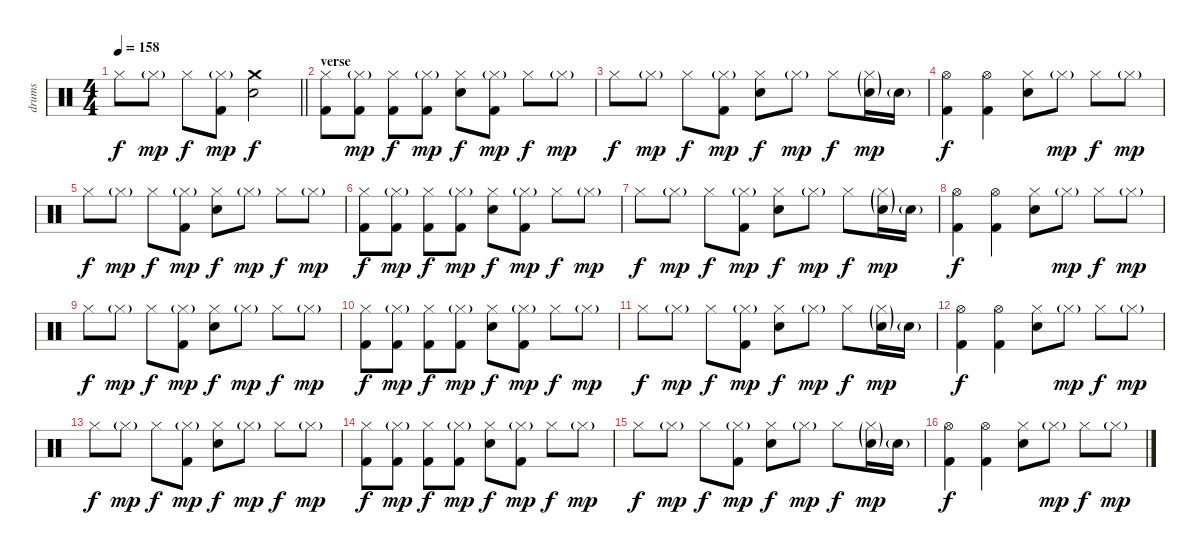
\track ("drums" "drums") {instrument percussion}
\staff {score}
\articulation defaults
\ts (4 4)
\tempo 158
\clef neutral
\barLineRight lightlight
\ks c "Hi-Hat (closed)".8{dy f} "Hi-Hat (closed)"{g}.8{dy mp} "Hi-Hat (closed)".8{dy f}
("Hi-Hat (closed)"{g} "Kick (hit) 2").8{dy mp} ("Crash medium (hit)" "Electric Snare (hit)").2{dy f} |
\section ("" "verse")
("Hi-Hat (closed)" "Kick (hit) 2").8 ("Hi-Hat (closed)"{g} "Kick (hit) 2").8{dy mp} ("Hi-Hat (closed)" "Kick (hit) 2").8{dy f} ("Hi-Hat (closed)"{g} "Kick (hit) 2").8{dy mp} ("Hi-Hat (closed)" "Electric Snare (hit)").8{dy f} ("Hi-Hat (closed)"{g} "Kick (hit) 2").8{dy mp} "Hi-Hat (closed)".8{dy f} "Hi-Hat (closed)"{g}.8{dy mp} |
"Hi-Hat (closed)".8{dy f} "Hi-Hat (closed)"{g}.8{dy mp} "Hi-Hat (closed)".8{dy f} ("Hi-Hat (closed)"{g} "Kick (hit) 2").8{dy mp} ("Hi-Hat (closed)" "Electric Snare (hit)").8{dy f} "Hi-Hat (closed)"{g}.8{dy mp} "Hi-Hat (closed)".8{dy f} ("Hi-Hat (closed)"{g} "Electric Snare (hit)"{g}).16{dy mp} "Electric Snare (hit)"{g}.16 |
("Hi-Hat (open)" "Kick (hit) 2").4{dy f} ("Hi-Hat (open)" "Kick (hit) 2").4 ("Hi-Hat (closed)" "Electric Snare (hit)").8 "Hi-Hat (closed)"{g}.8{dy mp} "Hi-Hat (closed)".8{dy f} "Hi-Hat (closed)"{g}.8{dy mp} |
"Hi-Hat (closed)".8{dy f} "Hi-Hat (closed)"{g}.8{dy mp} "Hi-Hat (closed)".8{dy f} ("Hi-Hat (closed)"{g} "Kick (hit) 2").8{dy mp} ("Hi-Hat (closed)" "Electric Snare (hit)").8{dy f} "Hi-Hat (closed)"{g}.8{dy mp} "Hi-Hat (closed)".8{dy f} "Hi-Hat (closed)"{g}.8{dy mp} |
("Hi-Hat (closed)" "Kick (hit) 2").8{dy f} ("Hi-Hat (closed)"{g} "Kick (hit) 2").8{dy mp} ("Hi-Hat (closed)" "Kick (hit) 2").8{dy f} ("Hi-Hat (closed)"{g} "Kick (hit) 2").8{dy mp} ("Hi-Hat (closed)" "Electric Snare (hit)").8{dy f} ("Hi-Hat (closed)"{g} "Kick (hit) 2").8{dy mp} "Hi-Hat (closed)".8{dy f} "Hi-Hat (closed)"{g}.8{dy mp} |
"Hi-Hat (closed)".8{dy f} "Hi-Hat (closed)"{g}.8{dy mp} "Hi-Hat (closed)".8{dy f} ("Hi-Hat (closed)"{g} "Kick (hit) 2").8{dy mp} ("Hi-Hat (closed)" "Electric Snare (hit)").8{dy f} "Hi-Hat (closed)"{g}.8{dy mp} "Hi-Hat (closed)".8{dy f} ("Hi-Hat (closed)"{g} "Electric Snare (hit)"{g}).16{dy mp} "Electric Snare (hit)"{g}.16 |
("Hi-Hat (open)" "Kick (hit) 2").4{dy f} ("Hi-Hat (open)" "Kick (hit) 2").4 ("Hi-Hat (closed)" "Electric Snare (hit)").8 "Hi-Hat (closed)"{g}.8{dy mp} "Hi-Hat (closed)".8{dy f} "Hi-Hat (closed)"{g}.8{dy mp} |
"Hi-Hat (closed)".8{dy f} "Hi-Hat (closed)"{g}.8{dy mp} "Hi-Hat (closed)".8{dy f} ("Hi-Hat (closed)"{g} "Kick (hit) 2").8{dy mp} ("Hi-Hat (closed)" "Electric Snare (hit)").8{dy f} "Hi-Hat (closed)"{g}.8{dy mp} "Hi-Hat (closed)".8{dy f} "Hi-Hat (closed)"{g}.8{dy mp} |
("Hi-Hat (closed)" "Kick (hit) 2").8{dy f} ("Hi-Hat (closed)"{g} "Kick (hit) 2").8{dy mp} ("Hi-Hat (closed)" "Kick (hit) 2").8{dy f} ("Hi-Hat (closed)"{g} "Kick (hit) 2").8{dy mp} ("Hi-Hat (closed)" "Electric Snare (hit)").8{dy f} ("Hi-Hat (closed)"{g} "Kick (hit) 2").8{dy mp} "Hi-Hat (closed)".8{dy f} "Hi-Hat (closed)"{g}.8{dy mp} |
"Hi-Hat (closed)".8{dy f} "Hi-Hat (closed)"{g}.8{dy mp} "Hi-Hat (closed)".8{dy f} ("Hi-Hat (closed)"{g} "Kick (hit) 2").8{dy mp} ("Hi-Hat (closed)" "Electric Snare (hit)").8{dy f} "Hi-Hat (closed)"{g}.8{dy mp} "Hi-Hat (closed)".8{dy f} ("Hi-Hat (closed)"{g} "Electric Snare (hit)"{g}).16{dy mp} "Electric Snare (hit)"{g}.16 |
("Hi-Hat (open)" "Kick (hit) 2").4{dy f} ("Hi-Hat (open)" "Kick (hit) 2").4 ("Hi-Hat (closed)" "Electric Snare (hit)").8 "Hi-Hat (closed)"{g}.8{dy mp} "Hi-Hat (closed)".8{dy f} "Hi-Hat (closed)"{g}.8{dy mp} |
"Hi-Hat (closed)".8{dy f} "Hi-Hat (closed)"{g}.8{dy mp} "Hi-Hat (closed)".8{dy f} ("Hi-Hat (closed)"{g} "Kick (hit) 2").8{dy mp} ("Hi-Hat (closed)" "Electric Snare (hit)").8{dy f} "Hi-Hat (closed)"{g}.8{dy mp} "Hi-Hat (closed)".8{dy f} "Hi-Hat (closed)"{g}.8{dy mp} |
("Hi-Hat (closed)" "Kick (hit) 2").8{dy f} ("Hi-Hat (closed)"{g} "Kick (hit) 2").8{dy mp} ("Hi-Hat (closed)" "Kick (hit) 2").8{dy f} ("Hi-Hat (closed)"{g} "Kick (hit) 2").8{dy mp} ("Hi-Hat (closed)" "Electric Snare (hit)").8{dy f} ("Hi-Hat (closed)"{g} "Kick (hit) 2").8{dy mp} "Hi-Hat (closed)".8{dy f} "Hi-Hat (closed)"{g}.8{dy mp} |
"Hi-Hat (closed)".8{dy f} "Hi-Hat (closed)"{g}.8{dy mp} "Hi-Hat (closed)".8{dy f} ("Hi-Hat (closed)"{g} "Kick (hit) 2").8{dy mp} ("Hi-Hat (closed)" "Electric Snare (hit)").8{dy f} "Hi-Hat (closed)"{g}.8{dy mp} "Hi-Hat (closed)".8{dy f} ("Hi-Hat (closed)"{g} "Electric Snare (hit)"{g}).16{dy mp} "Electric Snare (hit)"{g}.16 |
("Hi-Hat (open)" "Kick (hit) 2").4{dy f} ("Hi-Hat (open)" "Kick (hit) 2").4 ("Hi-Hat (closed)" "Electric Snare (hit)").8 "Hi-Hat (closed)"{g}.8{dy mp} "Hi-Hat (closed)".8{dy f} "Hi-Hat (closed)"{g}.8{dy mp}
